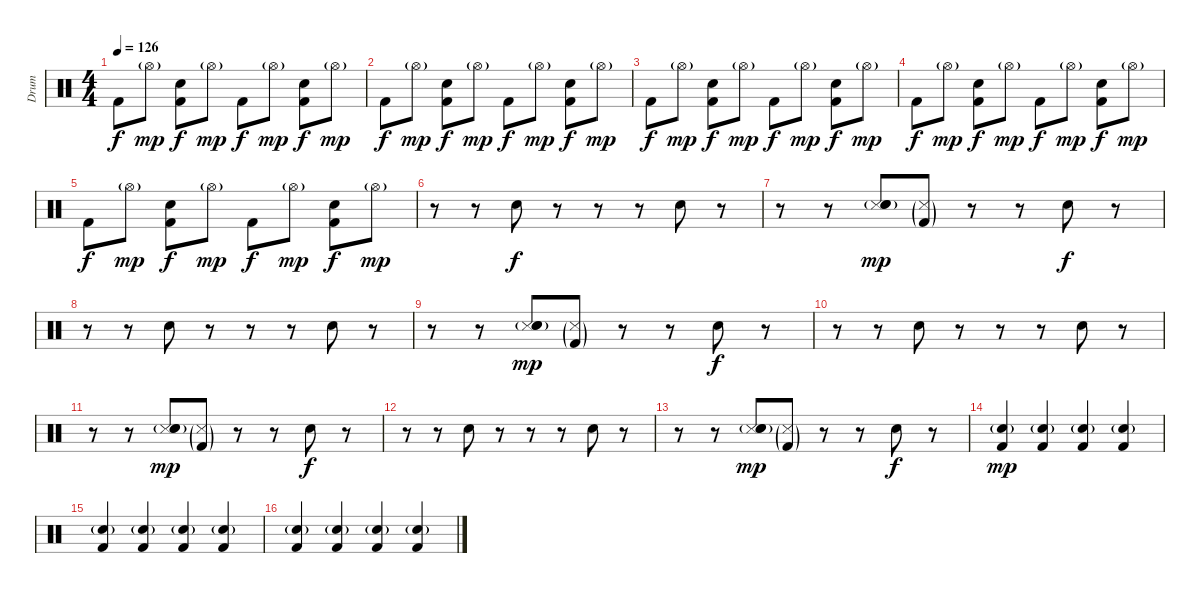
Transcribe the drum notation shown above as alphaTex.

\track ("Drum" "Drum") {instrument percussion}
\staff {score}
\articulation defaults
\ts (4 4)
\tempo 126
\clef neutral
\ks c "Kick (hit) 2".8{dy f} "Hi-Hat (open)"{g}.8{dy mp}
("Electric Snare (hit)" "Kick (hit) 2").8{dy f} "Hi-Hat (open)"{g}.8{dy mp} "Kick (hit) 2".8{dy f} "Hi-Hat (open)"{g}.8{dy mp} ("Electric Snare (hit)" "Kick (hit) 2").8{dy f} "Hi-Hat (open)"{g}.8{dy mp} |
"Kick (hit) 2".8{dy f} "Hi-Hat (open)"{g}.8{dy mp} ("Electric Snare (hit)" "Kick (hit) 2").8{dy f} "Hi-Hat (open)"{g}.8{dy mp} "Kick (hit) 2".8{dy f} "Hi-Hat (open)"{g}.8{dy mp} ("Electric Snare (hit)" "Kick (hit) 2").8{dy f} "Hi-Hat (open)"{g}.8{dy mp} |
"Kick (hit) 2".8{dy f} "Hi-Hat (open)"{g}.8{dy mp} ("Electric Snare (hit)" "Kick (hit) 2").8{dy f} "Hi-Hat (open)"{g}.8{dy mp} "Kick (hit) 2".8{dy f} "Hi-Hat (open)"{g}.8{dy mp} ("Electric Snare (hit)" "Kick (hit) 2").8{dy f} "Hi-Hat (open)"{g}.8{dy mp} |
"Kick (hit) 2".8{dy f} "Hi-Hat (open)"{g}.8{dy mp} ("Electric Snare (hit)" "Kick (hit) 2").8{dy f} "Hi-Hat (open)"{g}.8{dy mp} "Kick (hit) 2".8{dy f} "Hi-Hat (open)"{g}.8{dy mp} ("Electric Snare (hit)" "Kick (hit) 2").8{dy f} "Hi-Hat (open)"{g}.8{dy mp} |
"Kick (hit) 2".8{dy f} "Hi-Hat (open)"{g}.8{dy mp} ("Electric Snare (hit)" "Kick (hit) 2").8{dy f} "Hi-Hat (open)"{g}.8{dy mp} "Kick (hit) 2".8{dy f} "Hi-Hat (open)"{g}.8{dy mp} ("Electric Snare (hit)" "Kick (hit) 2").8{dy f} "Hi-Hat (open)"{g}.8{dy mp} |
r.8 r.8 "Hand Clap (hit)".8{dy f} r.8 r.8 r.8 "Hand Clap (hit)".8 r.8 |
r.8 r.8 ("Snare (side stick) 3"{g} "Hand Clap (hit)"{g} "Hand Clap (hit)").8{dy mp} ("Snare (side stick) 3"{g} "Kick (hit) 2"{g}).8 r.8 r.8 "Hand Clap (hit)".8{dy f} r.8 |
r.8 r.8 "Hand Clap (hit)".8 r.8 r.8 r.8 "Hand Clap (hit)".8 r.8 |
r.8 r.8 ("Snare (side stick) 3"{g} "Snare (hit) 2"{g} "Hand Clap (hit)").8{dy mp} ("Snare (side stick) 3"{g} "Kick (hit) 2"{g}).8 r.8 r.8 "Hand Clap (hit)".8{dy f} r.8 |
r.8 r.8 "Hand Clap (hit)".8 r.8 r.8 r.8 "Hand Clap (hit)".8 r.8 |
r.8 r.8 ("Snare (side stick) 3"{g} "Snare (hit) 2"{g} "Hand Clap (hit)").8{dy mp} ("Snare (side stick) 3"{g} "Kick (hit) 2"{g}).8 r.8 r.8 "Hand Clap (hit)".8{dy f} r.8 |
r.8 r.8 "Hand Clap (hit)".8 r.8 r.8 r.8 "Hand Clap (hit)".8 r.8 |
r.8 r.8 ("Snare (side stick) 3"{g} "Snare (hit) 2"{g} "Hand Clap (hit)").8{dy mp} ("Snare (side stick) 3"{g} "Kick (hit) 2"{g}).8 r.8 r.8 "Hand Clap (hit)".8{dy f} r.8 |
("Hand Clap (hit)"{g} "Kick (hit) 2").4{dy mp} ("Hand Clap (hit)"{g} "Kick (hit) 2").4 ("Hand Clap (hit)"{g} "Kick (hit) 2").4 ("Hand Clap (hit)"{g} "Kick (hit) 2").4 |
("Hand Clap (hit)"{g} "Kick (hit) 2").4 ("Hand Clap (hit)"{g} "Kick (hit) 2").4 ("Hand Clap (hit)"{g} "Kick (hit) 2").4 ("Hand Clap (hit)"{g} "Kick (hit) 2").4 |
("Hand Clap (hit)"{g} "Kick (hit) 2").4 ("Hand Clap (hit)"{g} "Kick (hit) 2").4 ("Hand Clap (hit)"{g} "Kick (hit) 2").4 ("Hand Clap (hit)"{g} "Kick (hit) 2").4
